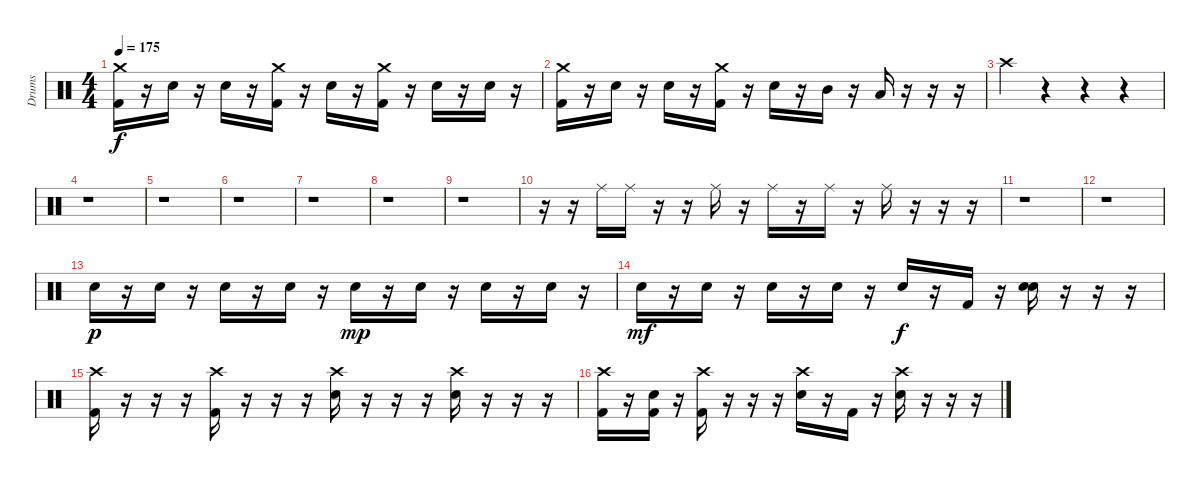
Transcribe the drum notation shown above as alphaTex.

\track ("Drums" "Drums") {instrument percussion}
\staff {score}
\articulation defaults
\ts (4 4)
\tempo 175
\clef neutral
\ks c
("Crash medium (hit)" "Kick (hit) 2").16{dy f} r.16 "Snare (hit) 2".16 r.16 "Snare (hit) 2".16 r.16 ("Crash medium (hit)" "Kick (hit) 2").16 r.16 "Snare (hit) 2".16 r.16 ("Crash medium (hit)" "Kick (hit) 2").16 r.16 "Snare (hit) 2".16 r.16 "Snare (hit) 2".16 r.16 |
("Crash medium (hit)" "Kick (hit) 2").16 r.16 "Snare (hit) 2".16 r.16 "Snare (hit) 2".16 r.16 ("Crash medium (hit)" "Kick (hit) 2").16 r.16 "Snare (hit) 2".16 r.16 "Mid Tom (hit)".16 r.16 "Low Floor Tom (hit)".16 r.16 r.16 r.16 |
"Crash high (hit)".4 r.4 r.4 r.4 |
r.1 |
r.1 |
r.1 |
r.1 |
r.1 |
r.1 |
r.16 r.16 "Ride (middle)".16 "Ride (middle)".16 r.16 r.16 "Ride (middle)".16 r.16 "Ride (middle)".16 r.16 "Ride (middle)".16 r.16 "Ride (middle)".16 r.16 r.16 r.16 |
r.1 |
r.1 |
"Snare (hit) 2".16{dy p} r.16 "Snare (hit) 2".16 r.16 "Snare (hit) 2".16 r.16 "Snare (hit) 2".16 r.16 "Snare (hit) 2".16{dy mp} r.16 "Snare (hit) 2".16 r.16 "Snare (hit) 2".16 r.16 "Snare (hit) 2".16 r.16 |
"Snare (hit) 2".16{dy mf} r.16 "Snare (hit) 2".16 r.16 "Snare (hit) 2".16 r.16 "Snare (hit) 2".16 r.16 "Snare (hit) 2".16{dy f} r.16 "Kick (hit) 2".16 r.16 ("Snare (hit) 2" "Snare (hit) 2").16 r.16 r.16 r.16 |
("Crash high (hit)" "Kick (hit) 2").16 r.16 r.16 r.16 ("Crash high (hit)" "Kick (hit) 2").16 r.16 r.16 r.16 ("Crash high (hit)" "Snare (hit) 2").16 r.16 r.16 r.16 ("Crash high (hit)" "Snare (hit) 2").16 r.16 r.16 r.16 |
("Crash high (hit)" "Kick (hit) 2").16 r.16 ("Snare (hit) 2" "Kick (hit) 2").16 r.16 ("Crash high (hit)" "Kick (hit) 2").16 r.16 r.16 r.16 ("Crash high (hit)" "Snare (hit) 2").16 r.16 "Kick (hit) 2".16 r.16 ("Crash high (hit)" "Snare (hit) 2").16 r.16 r.16 r.16
